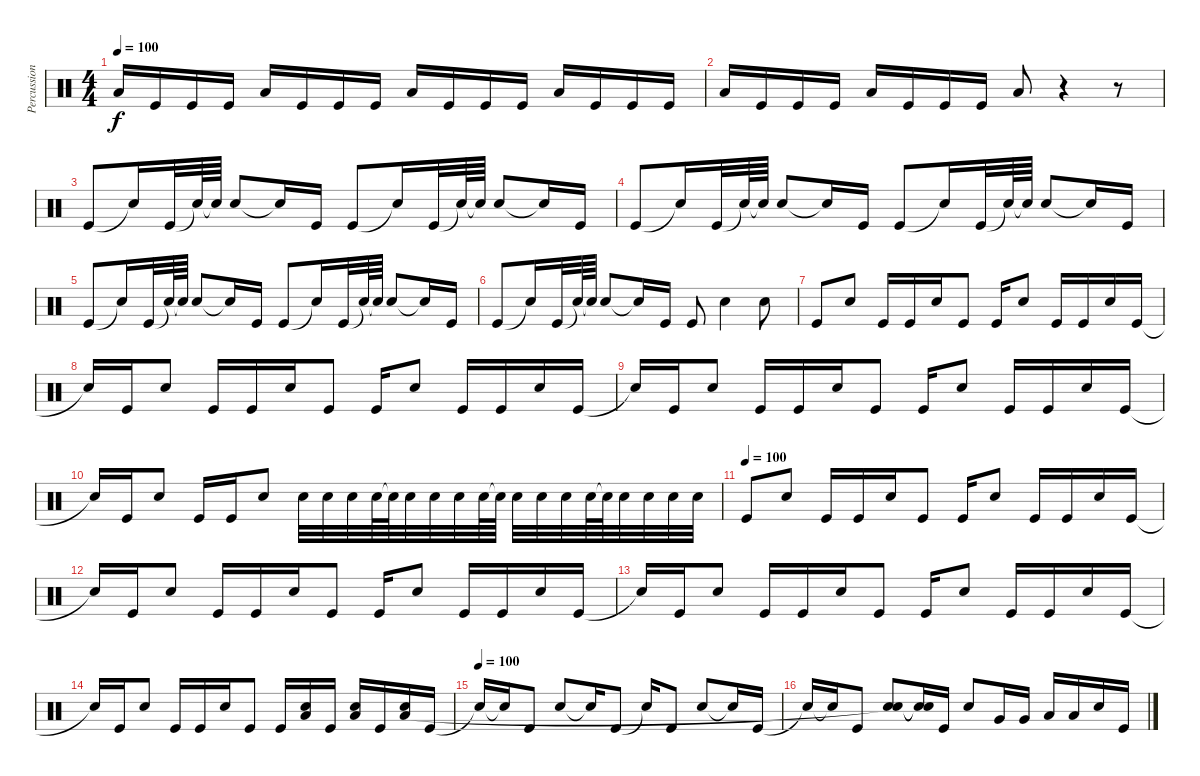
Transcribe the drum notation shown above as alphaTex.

\track ("Percussion" "Percussion") {instrument percussion}
\staff {score}
\articulation defaults
\ts (4 4)
\tempo 100
\clef neutral
\ks c "Low Floor Tom (hit)".16{dy f} "Kick (hit)".16 "Kick (hit)".16 "Kick (hit)".16 "Low Floor Tom (hit)".16 "Kick (hit)".16 "Kick (hit)".16 "Kick (hit)".16 "Low Floor Tom (hit)".16 "Kick (hit)".16 "Kick (hit)".16 "Kick (hit)".16 "Low Floor Tom (hit)".16 "Kick (hit)".16 "Kick (hit)".16 "Kick (hit)".16
|
"Low Floor Tom (hit)".16 "Kick (hit)".16 "Kick (hit)".16 "Kick (hit)".16 "Low Floor Tom (hit)".16 "Kick (hit)".16 "Kick (hit)".16 "Kick (hit)".16 "Low Floor Tom (hit)".8 r.4 r.8 |
"Kick (hit)".8 "Snare (hit)"{t}.16 "Kick (hit)".32 "Snare (hit)"{t}.64 "Snare (hit)"{t}.64 "Electric Snare (hit)".8 "Snare (hit)"{t}.16 "Kick (hit)".16 "Kick (hit)".8 "Snare (hit)"{t}.16 "Kick (hit)".32 "Snare (hit)"{t}.64 "Snare (hit)"{t}.64 "Electric Snare (hit)".8 "Snare (hit)"{t}.16 "Kick (hit)".16 |
"Kick (hit)".8 "Snare (hit)"{t}.16 "Kick (hit)".32 "Snare (hit)"{t}.64 "Snare (hit)"{t}.64 "Electric Snare (hit)".8 "Snare (hit)"{t}.16 "Kick (hit)".16 "Kick (hit)".8 "Snare (hit)"{t}.16 "Kick (hit)".32 "Snare (hit)"{t}.64 "Snare (hit)"{t}.64 "Electric Snare (hit)".8 "Snare (hit)"{t}.16 "Kick (hit)".16 |
"Kick (hit)".8 "Snare (hit)"{t}.16 "Kick (hit)".32 "Snare (hit)"{t}.64 "Snare (hit)"{t}.64 "Electric Snare (hit)".8 "Snare (hit)"{t}.16 "Kick (hit)".16 "Kick (hit)".8 "Snare (hit)"{t}.16 "Kick (hit)".32 "Snare (hit)"{t}.64 "Snare (hit)"{t}.64 "Electric Snare (hit)".8 "Snare (hit)"{t}.16 "Kick (hit)".16 |
"Kick (hit)".8 "Snare (hit)"{t}.16 "Kick (hit)".32 "Snare (hit)"{t}.64 "Snare (hit)"{t}.64 "Electric Snare (hit)".8 "Snare (hit)"{t}.16 "Kick (hit)".16 "Kick (hit)".8 "Electric Snare (hit)".4 "Electric Snare (hit)".8 |
"Kick (hit)".8 "Electric Snare (hit)".8 "Kick (hit)".16 "Kick (hit)".16 "Electric Snare (hit)".16 "Kick (hit)".8 "Kick (hit)".16 "Electric Snare (hit)".8 "Kick (hit)".16 "Kick (hit)".16 "Electric Snare (hit)".16 "Kick (hit)".16 |
"Snare (hit)"{t}.16 "Kick (hit)".16 "Electric Snare (hit)".8 "Kick (hit)".16 "Kick (hit)".16 "Electric Snare (hit)".16 "Kick (hit)".8 "Kick (hit)".16 "Electric Snare (hit)".8 "Kick (hit)".16 "Kick (hit)".16 "Electric Snare (hit)".16 "Kick (hit)".16 |
"Snare (hit)"{t}.16 "Kick (hit)".16 "Electric Snare (hit)".8 "Kick (hit)".16 "Kick (hit)".16 "Electric Snare (hit)".16 "Kick (hit)".8 "Kick (hit)".16 "Electric Snare (hit)".8 "Kick (hit)".16 "Kick (hit)".16 "Electric Snare (hit)".16 "Kick (hit)".16 |
"Snare (hit)"{t}.16 "Kick (hit)".16 "Electric Snare (hit)".8 "Kick (hit)".16 "Kick (hit)".16 "Electric Snare (hit)".8 "Electric Snare (hit)".32 "Electric Snare (hit)".32 "Electric Snare (hit)".32 "Electric Snare (hit)".64 "Snare (hit)"{t}.64 "Electric Snare (hit)".32 "Electric Snare (hit)".32 "Electric Snare (hit)".32 "Electric Snare (hit)".64 "Snare (hit)"{t}.64 "Electric Snare (hit)".32 "Electric Snare (hit)".32 "Electric Snare (hit)".32 "Electric Snare (hit)".64 "Snare (hit)"{t}.64 "Electric Snare (hit)".32 "Electric Snare (hit)".32 "Electric Snare (hit)".32 "Electric Snare (hit)".32 |
\tempo (100)
"Kick (hit)".8 "Electric Snare (hit)".8 "Kick (hit)".16 "Kick (hit)".16 "Electric Snare (hit)".16 "Kick (hit)".8 "Kick (hit)".16 "Electric Snare (hit)".8 "Kick (hit)".16 "Kick (hit)".16 "Electric Snare (hit)".16 "Kick (hit)".16 |
"Snare (hit)"{t}.16 "Kick (hit)".16 "Electric Snare (hit)".8 "Kick (hit)".16 "Kick (hit)".16 "Electric Snare (hit)".16 "Kick (hit)".8 "Kick (hit)".16 "Electric Snare (hit)".8 "Kick (hit)".16 "Kick (hit)".16 "Electric Snare (hit)".16 "Kick (hit)".16 |
"Snare (hit)"{t}.16 "Kick (hit)".16 "Electric Snare (hit)".8 "Kick (hit)".16 "Kick (hit)".16 "Electric Snare (hit)".16 "Kick (hit)".8 "Kick (hit)".16 "Electric Snare (hit)".8 "Kick (hit)".16 "Kick (hit)".16 "Electric Snare (hit)".16 "Kick (hit)".16 |
"Snare (hit)"{t}.16 "Kick (hit)".16 "Electric Snare (hit)".8 "Kick (hit)".16 "Kick (hit)".16 "Electric Snare (hit)".16 "Kick (hit)".8 "Kick (hit)".16 ("Electric Snare (hit)" "Low Floor Tom (hit)").16 "Kick (hit)".16 ("Electric Snare (hit)" "Low Floor Tom (hit)").16 "Kick (hit)".16 ("Electric Snare (hit)" "Low Floor Tom (hit)").16 "Kick (hit)".16 |
\tempo (100)
"Snare (hit)"{t}.16 "Snare (hit)"{t}.16 "Kick (hit)".8 "Electric Snare (hit)".8 "Snare (hit)"{t}.16 "Kick (hit)".8 "Snare (hit)"{t}.16 "Kick (hit)".8 "Electric Snare (hit)".8 "Snare (hit)"{t}.16 "Kick (hit)".16 |
"Snare (hit)"{t}.16 "Snare (hit)"{t}.16 "Kick (hit)".8 ("Electric Snare (hit)" "Snare (hit)"{t}).8 ("Snare (hit)"{t} "Snare (hit)"{t}).16 "Kick (hit)".16 "Electric Snare (hit)".8 "Very Low Tom (hit)".16 "Very Low Tom (hit)".16 "Low Floor Tom (hit)".16 "Low Floor Tom (hit)".16 "Electric Snare (hit)".16 "Kick (hit)".16
